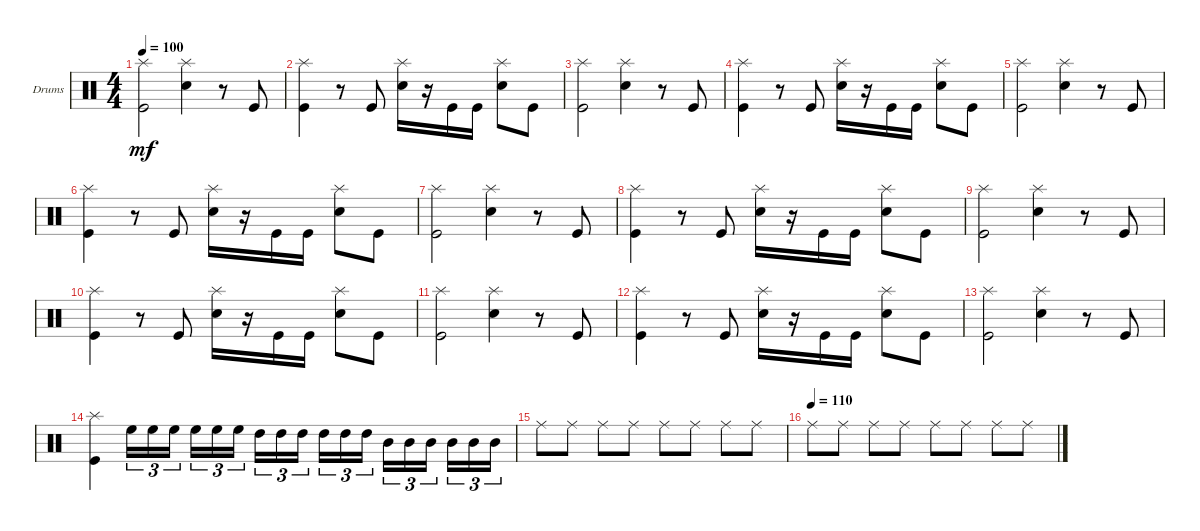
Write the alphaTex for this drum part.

\defaultSystemsLayout 4
\bracketExtendMode groupsimilarinstruments
\firstSystemTrackNameOrientation horizontal
\otherSystemsTrackNameOrientation horizontal
\track ("Drumkit" "Drums") {instrument percussion}
\staff {score}
\articulation defaults
\ts (4 4)
\tempo 100
\clef neutral
\ks c
("Splash (hit)" "Kick (hit)").2{dy mf} ("Snare (hit) 2" "Splash (hit)").4 r.8 "Kick (hit)".8 |
("Kick (hit)" "Splash (hit)").4 r.8 "Kick (hit)".8 ("Snare (hit) 2" "Splash (hit)").16 r.16 "Kick (hit)".16 "Kick (hit)".16 ("Snare (hit) 2" "Splash (hit)").8 "Kick (hit)".8 |
("Splash (hit)" "Kick (hit)").2 ("Snare (hit) 2" "Splash (hit)").4 r.8 "Kick (hit)".8 |
("Kick (hit)" "Splash (hit)").4 r.8 "Kick (hit)".8 ("Snare (hit) 2" "Splash (hit)").16 r.16 "Kick (hit)".16 "Kick (hit)".16 ("Snare (hit) 2" "Splash (hit)").8 "Kick (hit)".8 |
("Splash (hit)" "Kick (hit)").2 ("Snare (hit) 2" "Splash (hit)").4 r.8 "Kick (hit)".8 |
("Kick (hit)" "Splash (hit)").4 r.8 "Kick (hit)".8 ("Snare (hit) 2" "Splash (hit)").16 r.16 "Kick (hit)".16 "Kick (hit)".16 ("Snare (hit) 2" "Splash (hit)").8 "Kick (hit)".8 |
("Splash (hit)" "Kick (hit)").2 ("Snare (hit) 2" "Splash (hit)").4 r.8 "Kick (hit)".8 |
("Kick (hit)" "Splash (hit)").4 r.8 "Kick (hit)".8 ("Snare (hit) 2" "Splash (hit)").16 r.16 "Kick (hit)".16 "Kick (hit)".16 ("Snare (hit) 2" "Splash (hit)").8 "Kick (hit)".8 |
("Splash (hit)" "Kick (hit)").2 ("Snare (hit) 2" "Splash (hit)").4 r.8 "Kick (hit)".8 |
("Kick (hit)" "Splash (hit)").4 r.8 "Kick (hit)".8 ("Snare (hit) 2" "Splash (hit)").16 r.16 "Kick (hit)".16 "Kick (hit)".16 ("Snare (hit) 2" "Splash (hit)").8 "Kick (hit)".8 |
("Splash (hit)" "Kick (hit)").2 ("Snare (hit) 2" "Splash (hit)").4 r.8 "Kick (hit)".8 |
("Kick (hit)" "Splash (hit)").4 r.8 "Kick (hit)".8 ("Snare (hit) 2" "Splash (hit)").16 r.16 "Kick (hit)".16 "Kick (hit)".16 ("Snare (hit) 2" "Splash (hit)").8 "Kick (hit)".8 |
("Splash (hit)" "Kick (hit)").2 ("Snare (hit) 2" "Splash (hit)").4 r.8 "Kick (hit)".8 |
("Kick (hit)" "Splash (hit)").4 "High Floor Tom (hit)".16{tu (3 2)} "High Floor Tom (hit)".16{tu (3 2)} "High Floor Tom (hit)".16{tu (3 2)} "High Floor Tom (hit)".16{tu (3 2)} "High Floor Tom (hit)".16{tu (3 2)} "High Floor Tom (hit)".16{tu (3 2)} "High Tom (hit)".16{tu (3 2)} "High Tom (hit)".16{tu (3 2)} "High Tom (hit)".16{tu (3 2)} "High Tom (hit)".16{tu (3 2)} "High Tom (hit)".16{tu (3 2)} "High Tom (hit)".16{tu (3 2)} "Mid Tom (hit)".16{tu (3 2)} "Mid Tom (hit)".16{tu (3 2)} "Mid Tom (hit)".16{tu (3 2)} "Mid Tom (hit)".16{tu (3 2)} "Mid Tom (hit)".16{tu (3 2)} "Mid Tom (hit)".16{tu (3 2)} |
"Ride (middle)".8 "Ride (middle)".8 "Ride (middle)".8 "Ride (middle)".8 "Ride (middle)".8 "Ride (middle)".8 "Ride (middle)".8 "Ride (middle)".8 |
\tempo (110)
"Ride (middle)".8 "Ride (middle)".8 "Ride (middle)".8 "Ride (middle)".8 "Ride (middle)".8 "Ride (middle)".8 "Ride (middle)".8 "Ride (middle)".8
